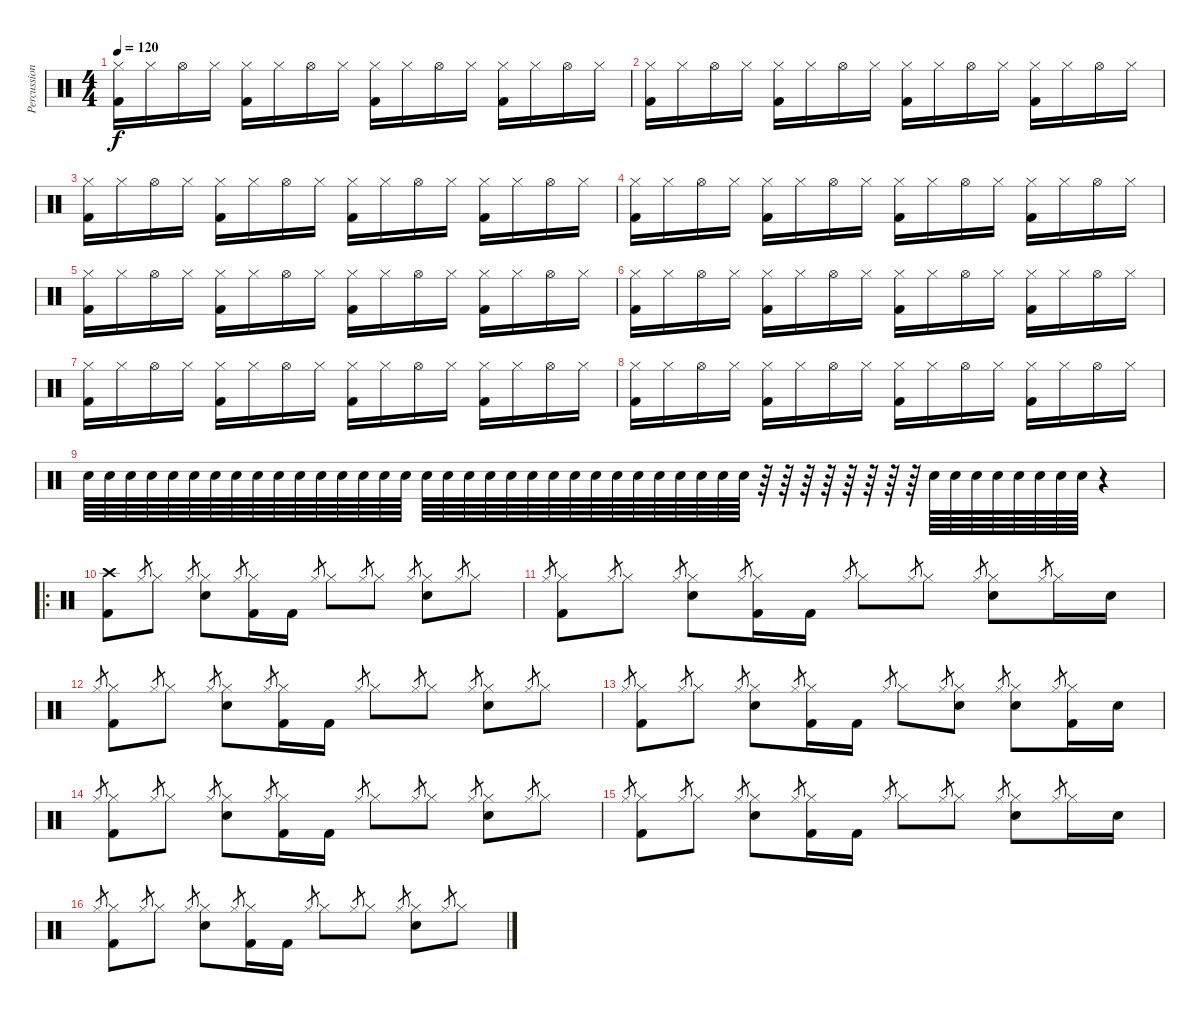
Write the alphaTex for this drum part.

\track ("Percussion" "Percussion") {instrument percussion}
\staff {score}
\articulation defaults
\ts (4 4)
\tempo 120
\clef neutral
\ks c
("Hi-Hat (closed)" "Kick (hit) 2").16{dy f} "Hi-Hat (closed)".16 "Hi-Hat (open)".16 "Hi-Hat (closed)".16 ("Hi-Hat (closed)" "Kick (hit) 2").16 "Hi-Hat (closed)".16 "Hi-Hat (open)".16 "Hi-Hat (closed)".16 ("Hi-Hat (closed)" "Kick (hit) 2").16 "Hi-Hat (closed)".16 "Hi-Hat (open)".16 "Hi-Hat (closed)".16 ("Hi-Hat (closed)" "Kick (hit) 2").16 "Hi-Hat (closed)".16 "Hi-Hat (open)".16 "Hi-Hat (closed)".16 |
("Hi-Hat (closed)" "Kick (hit) 2").16 "Hi-Hat (closed)".16 "Hi-Hat (open)".16 "Hi-Hat (closed)".16 ("Hi-Hat (closed)" "Kick (hit) 2").16 "Hi-Hat (closed)".16 "Hi-Hat (open)".16 "Hi-Hat (closed)".16 ("Hi-Hat (closed)" "Kick (hit) 2").16 "Hi-Hat (closed)".16 "Hi-Hat (open)".16 "Hi-Hat (closed)".16 ("Hi-Hat (closed)" "Kick (hit) 2").16 "Hi-Hat (closed)".16 "Hi-Hat (open)".16 "Hi-Hat (closed)".16 |
("Hi-Hat (closed)" "Kick (hit) 2").16 "Hi-Hat (closed)".16 "Hi-Hat (open)".16 "Hi-Hat (closed)".16 ("Hi-Hat (closed)" "Kick (hit) 2").16 "Hi-Hat (closed)".16 "Hi-Hat (open)".16 "Hi-Hat (closed)".16 ("Hi-Hat (closed)" "Kick (hit) 2").16 "Hi-Hat (closed)".16 "Hi-Hat (open)".16 "Hi-Hat (closed)".16 ("Hi-Hat (closed)" "Kick (hit) 2").16 "Hi-Hat (closed)".16 "Hi-Hat (open)".16 "Hi-Hat (closed)".16 |
("Hi-Hat (closed)" "Kick (hit) 2").16 "Hi-Hat (closed)".16 "Hi-Hat (open)".16 "Hi-Hat (closed)".16 ("Hi-Hat (closed)" "Kick (hit) 2").16 "Hi-Hat (closed)".16 "Hi-Hat (open)".16 "Hi-Hat (closed)".16 ("Hi-Hat (closed)" "Kick (hit) 2").16 "Hi-Hat (closed)".16 "Hi-Hat (open)".16 "Hi-Hat (closed)".16 ("Hi-Hat (closed)" "Kick (hit) 2").16 "Hi-Hat (closed)".16 "Hi-Hat (open)".16 "Hi-Hat (closed)".16 |
("Hi-Hat (closed)" "Kick (hit) 2").16 "Hi-Hat (closed)".16 "Hi-Hat (open)".16 "Hi-Hat (closed)".16 ("Hi-Hat (closed)" "Kick (hit) 2").16 "Hi-Hat (closed)".16 "Hi-Hat (open)".16 "Hi-Hat (closed)".16 ("Hi-Hat (closed)" "Kick (hit) 2").16 "Hi-Hat (closed)".16 "Hi-Hat (open)".16 "Hi-Hat (closed)".16 ("Hi-Hat (closed)" "Kick (hit) 2").16 "Hi-Hat (closed)".16 "Hi-Hat (open)".16 "Hi-Hat (closed)".16 |
("Hi-Hat (closed)" "Kick (hit) 2").16 "Hi-Hat (closed)".16 "Hi-Hat (open)".16 "Hi-Hat (closed)".16 ("Hi-Hat (closed)" "Kick (hit) 2").16 "Hi-Hat (closed)".16 "Hi-Hat (open)".16 "Hi-Hat (closed)".16 ("Hi-Hat (closed)" "Kick (hit) 2").16 "Hi-Hat (closed)".16 "Hi-Hat (open)".16 "Hi-Hat (closed)".16 ("Hi-Hat (closed)" "Kick (hit) 2").16 "Hi-Hat (closed)".16 "Hi-Hat (open)".16 "Hi-Hat (closed)".16 |
("Hi-Hat (closed)" "Kick (hit) 2").16 "Hi-Hat (closed)".16 "Hi-Hat (open)".16 "Hi-Hat (closed)".16 ("Hi-Hat (closed)" "Kick (hit) 2").16 "Hi-Hat (closed)".16 "Hi-Hat (open)".16 "Hi-Hat (closed)".16 ("Hi-Hat (closed)" "Kick (hit) 2").16 "Hi-Hat (closed)".16 "Hi-Hat (open)".16 "Hi-Hat (closed)".16 ("Hi-Hat (closed)" "Kick (hit) 2").16 "Hi-Hat (closed)".16 "Hi-Hat (open)".16 "Hi-Hat (closed)".16 |
("Hi-Hat (closed)" "Kick (hit) 2").16 "Hi-Hat (closed)".16 "Hi-Hat (open)".16 "Hi-Hat (closed)".16 ("Hi-Hat (closed)" "Kick (hit) 2").16 "Hi-Hat (closed)".16 "Hi-Hat (open)".16 "Hi-Hat (closed)".16 ("Hi-Hat (closed)" "Kick (hit) 2").16 "Hi-Hat (closed)".16 "Hi-Hat (open)".16 "Hi-Hat (closed)".16 ("Hi-Hat (closed)" "Kick (hit) 2").16 "Hi-Hat (closed)".16 "Hi-Hat (open)".16 "Hi-Hat (closed)".16 |
"Snare (hit) 2".64 "Snare (hit) 2".64 "Snare (hit) 2".64 "Snare (hit) 2".64 "Snare (hit) 2".64 "Snare (hit) 2".64 "Snare (hit) 2".64 "Snare (hit) 2".64 "Snare (hit) 2".64 "Snare (hit) 2".64 "Snare (hit) 2".64 "Snare (hit) 2".64 "Snare (hit) 2".64 "Snare (hit) 2".64 "Snare (hit) 2".64 "Snare (hit) 2".64 "Snare (hit) 2".64 "Snare (hit) 2".64 "Snare (hit) 2".64 "Snare (hit) 2".64 "Snare (hit) 2".64 "Snare (hit) 2".64 "Snare (hit) 2".64 "Snare (hit) 2".64 "Snare (hit) 2".64 "Snare (hit) 2".64 "Snare (hit) 2".64 "Snare (hit) 2".64 "Snare (hit) 2".64 "Snare (hit) 2".64 "Snare (hit) 2".64 "Snare (hit) 2".64 r.64 r.64 r.64 r.64 r.64 r.64 r.64 r.64 "Snare (hit) 2".64 "Snare (hit) 2".64 "Snare (hit) 2".64 "Snare (hit) 2".64 "Snare (hit) 2".64 "Snare (hit) 2".64 "Snare (hit) 2".64 "Snare (hit) 2".64 r.4 |
\ro
("Crash high (hit)" "Kick (hit) 2").8 "Hi-Hat (closed)".8{gr} "Hi-Hat (closed)".8 "Hi-Hat (closed)".8{gr} ("Hi-Hat (closed)" "Snare (hit) 2").8 "Hi-Hat (closed)".8{gr} ("Hi-Hat (closed)" "Kick (hit) 2").16 "Kick (hit) 2".16 "Hi-Hat (closed)".8{gr} "Hi-Hat (closed)".8 "Hi-Hat (closed)".8{gr} "Hi-Hat (closed)".8 "Hi-Hat (closed)".8{gr} ("Hi-Hat (closed)" "Snare (hit) 2").8 "Hi-Hat (closed)".8{gr} "Hi-Hat (closed)".8 |
"Hi-Hat (closed)".8{gr} ("Hi-Hat (closed)" "Kick (hit) 2").8 "Hi-Hat (closed)".8{gr} "Hi-Hat (closed)".8 "Hi-Hat (closed)".8{gr} ("Hi-Hat (closed)" "Snare (hit) 2").8 "Hi-Hat (closed)".8{gr} ("Hi-Hat (closed)" "Kick (hit) 2").16 "Kick (hit) 2".16 "Hi-Hat (closed)".8{gr} "Hi-Hat (closed)".8 "Hi-Hat (closed)".8{gr} "Hi-Hat (closed)".8 "Hi-Hat (closed)".8{gr} ("Hi-Hat (closed)" "Snare (hit) 2").8 "Hi-Hat (closed)".8{gr} "Hi-Hat (closed)".16 "Snare (hit) 2".16 |
"Hi-Hat (closed)".8{gr} ("Hi-Hat (closed)" "Kick (hit) 2").8 "Hi-Hat (closed)".8{gr} "Hi-Hat (closed)".8 "Hi-Hat (closed)".8{gr} ("Hi-Hat (closed)" "Snare (hit) 2").8 "Hi-Hat (closed)".8{gr} ("Hi-Hat (closed)" "Kick (hit) 2").16 "Kick (hit) 2".16 "Hi-Hat (closed)".8{gr} "Hi-Hat (closed)".8 "Hi-Hat (closed)".8{gr} "Hi-Hat (closed)".8 "Hi-Hat (closed)".8{gr} ("Hi-Hat (closed)" "Snare (hit) 2").8 "Hi-Hat (closed)".8{gr} "Hi-Hat (closed)".8 |
"Hi-Hat (closed)".8{gr} ("Hi-Hat (closed)" "Kick (hit) 2").8 "Hi-Hat (closed)".8{gr} "Hi-Hat (closed)".8 "Hi-Hat (closed)".8{gr} ("Hi-Hat (closed)" "Snare (hit) 2").8 "Hi-Hat (closed)".8{gr} ("Hi-Hat (closed)" "Kick (hit) 2").16 "Kick (hit) 2".16 "Hi-Hat (closed)".8{gr} "Hi-Hat (closed)".8 "Hi-Hat (closed)".8{gr} ("Hi-Hat (closed)" "Snare (hit) 2").8 "Hi-Hat (closed)".8{gr} ("Hi-Hat (closed)" "Snare (hit) 2").8 "Hi-Hat (closed)".8{gr} ("Hi-Hat (closed)" "Kick (hit) 2").16 "Snare (hit) 2".16 |
"Hi-Hat (closed)".8{gr} ("Hi-Hat (closed)" "Kick (hit) 2").8 "Hi-Hat (closed)".8{gr} "Hi-Hat (closed)".8 "Hi-Hat (closed)".8{gr} ("Hi-Hat (closed)" "Snare (hit) 2").8 "Hi-Hat (closed)".8{gr} ("Hi-Hat (closed)" "Kick (hit) 2").16 "Kick (hit) 2".16 "Hi-Hat (closed)".8{gr} "Hi-Hat (closed)".8 "Hi-Hat (closed)".8{gr} "Hi-Hat (closed)".8 "Hi-Hat (closed)".8{gr} ("Hi-Hat (closed)" "Snare (hit) 2").8 "Hi-Hat (closed)".8{gr} "Hi-Hat (closed)".8 |
"Hi-Hat (closed)".8{gr} ("Hi-Hat (closed)" "Kick (hit) 2").8 "Hi-Hat (closed)".8{gr} "Hi-Hat (closed)".8 "Hi-Hat (closed)".8{gr} ("Hi-Hat (closed)" "Snare (hit) 2").8 "Hi-Hat (closed)".8{gr} ("Hi-Hat (closed)" "Kick (hit) 2").16 "Kick (hit) 2".16 "Hi-Hat (closed)".8{gr} "Hi-Hat (closed)".8 "Hi-Hat (closed)".8{gr} "Hi-Hat (closed)".8 "Hi-Hat (closed)".8{gr} ("Hi-Hat (closed)" "Snare (hit) 2").8 "Hi-Hat (closed)".8{gr} "Hi-Hat (closed)".16 "Snare (hit) 2".16 |
"Hi-Hat (closed)".8{gr} ("Hi-Hat (closed)" "Kick (hit) 2").8 "Hi-Hat (closed)".8{gr} "Hi-Hat (closed)".8 "Hi-Hat (closed)".8{gr} ("Hi-Hat (closed)" "Snare (hit) 2").8 "Hi-Hat (closed)".8{gr} ("Hi-Hat (closed)" "Kick (hit) 2").16 "Kick (hit) 2".16 "Hi-Hat (closed)".8{gr} "Hi-Hat (closed)".8 "Hi-Hat (closed)".8{gr} "Hi-Hat (closed)".8 "Hi-Hat (closed)".8{gr} ("Hi-Hat (closed)" "Snare (hit) 2").8 "Hi-Hat (closed)".8{gr} "Hi-Hat (closed)".8
